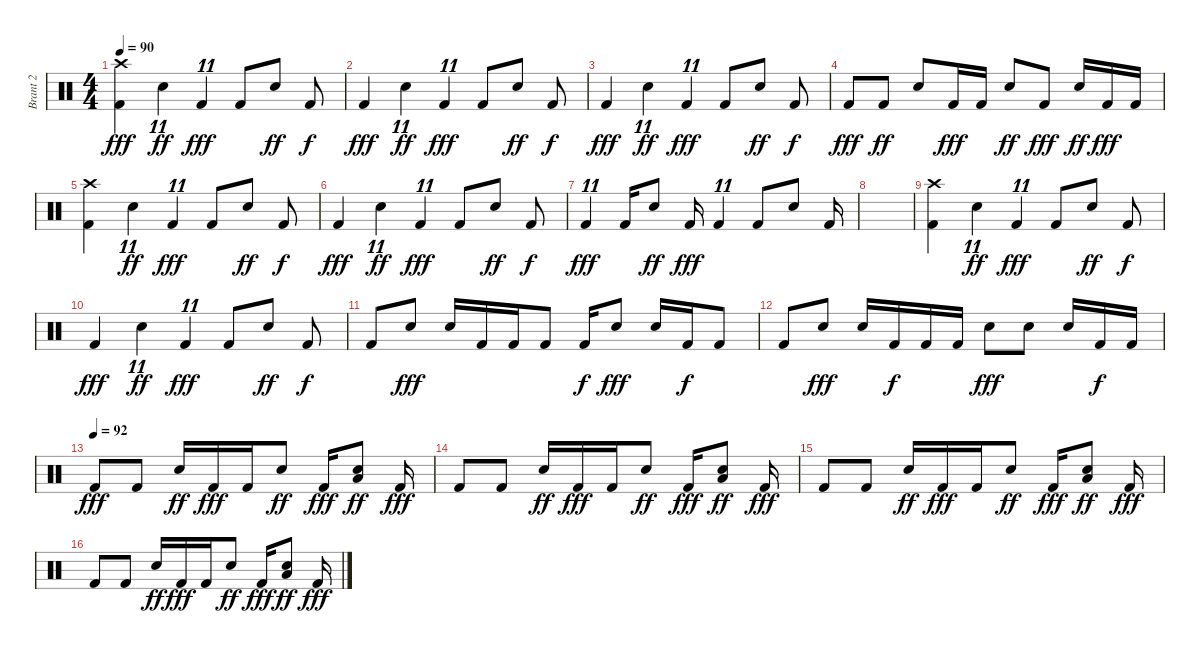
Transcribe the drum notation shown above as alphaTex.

\track ("Brant 2" "Brant 2") {instrument percussion}
\staff {score}
\articulation defaults
\ts (4 4)
\tempo 90
\clef neutral
\ks c
("Crash high (hit)" "Kick (hit) 2").4{dy fff} "Electric Snare (hit)".4{tu (11 8) dy ff} "Kick (hit) 2".4{tu (11 8) dy fff} "Kick (hit) 2".8 "Electric Snare (hit)".8{dy ff} "Kick (hit) 2".8{dy f} |
"Kick (hit) 2".4{dy fff} "Electric Snare (hit)".4{tu (11 8) dy ff} "Kick (hit) 2".4{tu (11 8) dy fff} "Kick (hit) 2".8 "Electric Snare (hit)".8{dy ff} "Kick (hit) 2".8{dy f} |
"Kick (hit) 2".4{dy fff} "Electric Snare (hit)".4{tu (11 8) dy ff} "Kick (hit) 2".4{tu (11 8) dy fff} "Kick (hit) 2".8 "Electric Snare (hit)".8{dy ff} "Kick (hit) 2".8{dy f} |
"Kick (hit) 2".8{dy fff} "Kick (hit) 2".8{dy ff} "Electric Snare (hit)".8 "Kick (hit) 2".16{dy fff} "Kick (hit) 2".16 "Electric Snare (hit)".8{dy ff} "Kick (hit) 2".8{dy fff} "Electric Snare (hit)".16{dy ff} "Kick (hit) 2".16{dy fff} "Kick (hit) 2".16 |
("Crash high (hit)" "Kick (hit) 2").4 "Electric Snare (hit)".4{tu (11 8) dy ff} "Kick (hit) 2".4{tu (11 8) dy fff} "Kick (hit) 2".8 "Electric Snare (hit)".8{dy ff} "Kick (hit) 2".8{dy f} |
"Kick (hit) 2".4{dy fff} "Electric Snare (hit)".4{tu (11 8) dy ff} "Kick (hit) 2".4{tu (11 8) dy fff} "Kick (hit) 2".8 "Electric Snare (hit)".8{dy ff} "Kick (hit) 2".8{dy f} |
"Kick (hit) 2".4{tu (11 8) dy fff} "Kick (hit) 2".16 "Electric Snare (hit)".8{dy ff} "Kick (hit) 2".16{dy fff} "Kick (hit) 2".4{tu (11 8)} "Kick (hit) 2".8 "Electric Snare (hit)".8 "Kick (hit) 2".16 |
|
("Crash high (hit)" "Kick (hit) 2").4 "Electric Snare (hit)".4{tu (11 8) dy ff} "Kick (hit) 2".4{tu (11 8) dy fff} "Kick (hit) 2".8 "Electric Snare (hit)".8{dy ff} "Kick (hit) 2".8{dy f} |
"Kick (hit) 2".4{dy fff} "Electric Snare (hit)".4{tu (11 8) dy ff} "Kick (hit) 2".4{tu (11 8) dy fff} "Kick (hit) 2".8 "Electric Snare (hit)".8{dy ff} "Kick (hit) 2".8{dy f} |
"Kick (hit) 2".8 "Electric Snare (hit)".8{dy fff} "Electric Snare (hit)".16 "Kick (hit) 2".16 "Kick (hit) 2".16 "Kick (hit) 2".8 "Kick (hit) 2".16{dy f} "Electric Snare (hit)".8{dy fff} "Electric Snare (hit)".16 "Kick (hit) 2".16{dy f} "Kick (hit) 2".8 |
"Kick (hit) 2".8 "Electric Snare (hit)".8{dy fff} "Electric Snare (hit)".16 "Kick (hit) 2".16{dy f} "Kick (hit) 2".16 "Kick (hit) 2".16 "Electric Snare (hit)".8{dy fff} "Electric Snare (hit)".8 "Electric Snare (hit)".16 "Kick (hit) 2".16{dy f} "Kick (hit) 2".16 |
\tempo (92)
"Kick (hit) 2".8{dy fff} "Kick (hit) 2".8 "Electric Snare (hit)".16{dy ff} "Kick (hit) 2".16{dy fff} "Kick (hit) 2".16 "Electric Snare (hit)".8{dy ff} "Kick (hit) 2".16{dy fff} ("Low Floor Tom (hit)" "Electric Snare (hit)").8{dy ff} "Kick (hit) 2".16{dy fff} |
"Kick (hit) 2".8 "Kick (hit) 2".8 "Electric Snare (hit)".16{dy ff} "Kick (hit) 2".16{dy fff} "Kick (hit) 2".16 "Electric Snare (hit)".8{dy ff} "Kick (hit) 2".16{dy fff} ("Low Floor Tom (hit)" "Electric Snare (hit)").8{dy ff} "Kick (hit) 2".16{dy fff} |
"Kick (hit) 2".8 "Kick (hit) 2".8 "Electric Snare (hit)".16{dy ff} "Kick (hit) 2".16{dy fff} "Kick (hit) 2".16 "Electric Snare (hit)".8{dy ff} "Kick (hit) 2".16{dy fff} ("Low Floor Tom (hit)" "Electric Snare (hit)").8{dy ff} "Kick (hit) 2".16{dy fff} |
"Kick (hit) 2".8 "Kick (hit) 2".8 "Electric Snare (hit)".16{dy ff} "Kick (hit) 2".16{dy fff} "Kick (hit) 2".16 "Electric Snare (hit)".8{dy ff} "Kick (hit) 2".16{dy fff} ("Low Floor Tom (hit)" "Electric Snare (hit)").8{dy ff} "Kick (hit) 2".16{dy fff}
